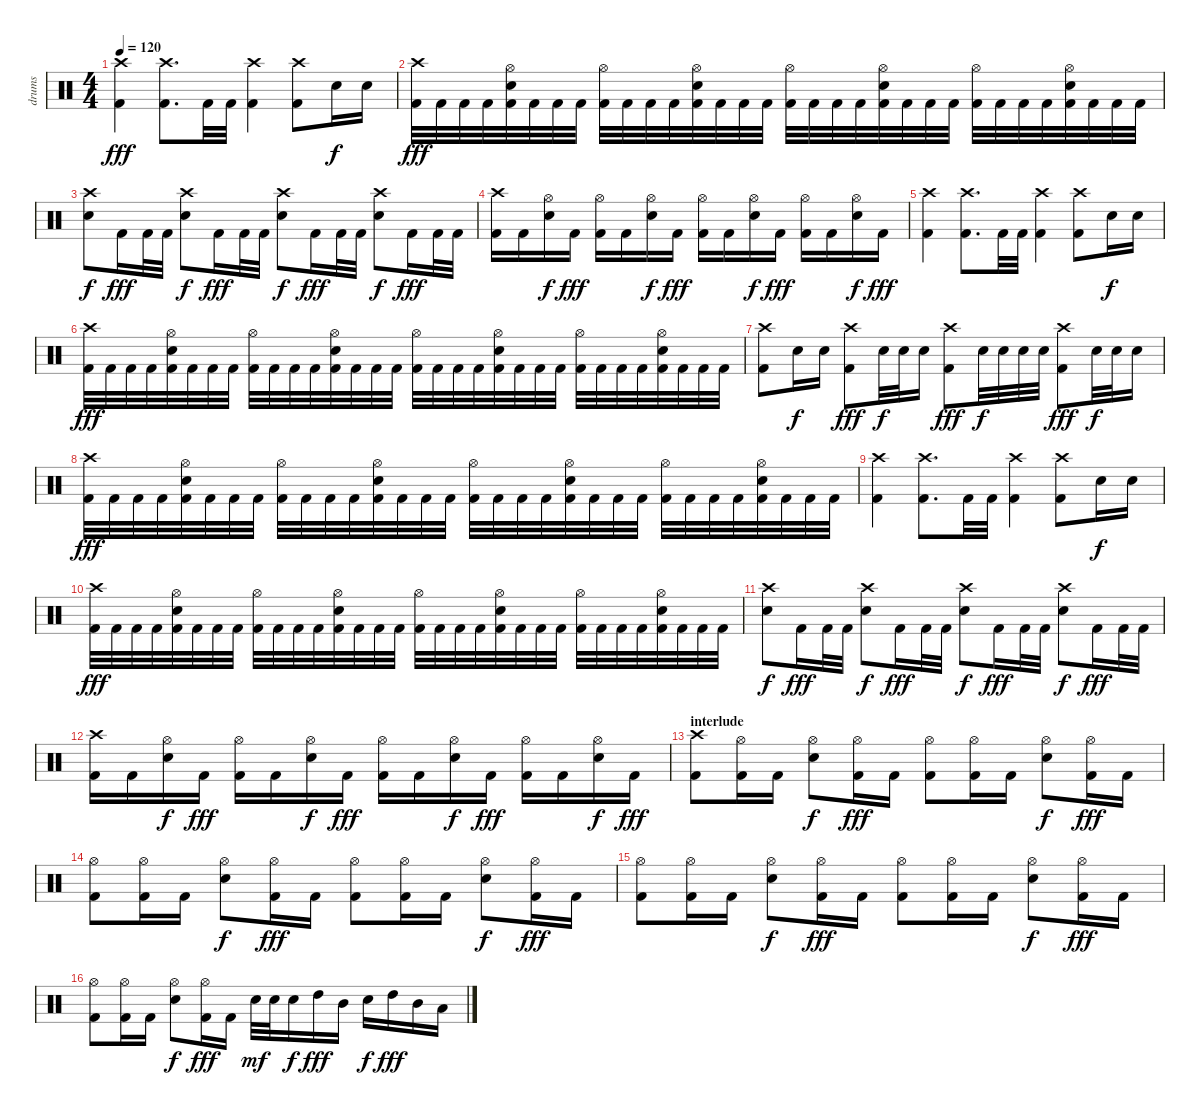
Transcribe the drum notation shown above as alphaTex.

\track ("drums" "drums") {instrument percussion}
\staff {score}
\articulation defaults
\ts (4 4)
\tempo 120
\clef neutral
\ks c
("Crash high (hit)" "Kick (hit) 2").4{dy fff} ("Crash high (hit)" "Kick (hit) 2").8{d} "Kick (hit) 2".32 "Kick (hit) 2".32 ("Crash high (hit)" "Kick (hit) 2").4 ("Crash high (hit)" "Kick (hit) 2").8 "Snare (hit) 2".16{dy f} "Snare (hit) 2".16 |
("Crash high (hit)" "Kick (hit) 2").32{dy fff} "Kick (hit) 2".32 "Kick (hit) 2".32 "Kick (hit) 2".32 ("Hi-Hat (open)" "Snare (hit) 2" "Kick (hit) 2").32 "Kick (hit) 2".32 "Kick (hit) 2".32 "Kick (hit) 2".32 ("Hi-Hat (open)" "Kick (hit) 2").32 "Kick (hit) 2".32 "Kick (hit) 2".32 "Kick (hit) 2".32 ("Hi-Hat (open)" "Snare (hit) 2" "Kick (hit) 2").32 "Kick (hit) 2".32 "Kick (hit) 2".32 "Kick (hit) 2".32 ("Hi-Hat (open)" "Kick (hit) 2").32 "Kick (hit) 2".32 "Kick (hit) 2".32 "Kick (hit) 2".32 ("Hi-Hat (open)" "Snare (hit) 2" "Kick (hit) 2").32 "Kick (hit) 2".32 "Kick (hit) 2".32 "Kick (hit) 2".32 ("Hi-Hat (open)" "Kick (hit) 2").32 "Kick (hit) 2".32 "Kick (hit) 2".32 "Kick (hit) 2".32 ("Hi-Hat (open)" "Snare (hit) 2" "Kick (hit) 2").32 "Kick (hit) 2".32 "Kick (hit) 2".32 "Kick (hit) 2".32 |
("Crash high (hit)" "Snare (hit) 2").8{dy f} "Kick (hit) 2".16{dy fff} "Kick (hit) 2".32 "Kick (hit) 2".32 ("Crash high (hit)" "Snare (hit) 2").8{dy f} "Kick (hit) 2".16{dy fff} "Kick (hit) 2".32 "Kick (hit) 2".32 ("Crash high (hit)" "Snare (hit) 2").8{dy f} "Kick (hit) 2".16{dy fff} "Kick (hit) 2".32 "Kick (hit) 2".32 ("Crash high (hit)" "Snare (hit) 2").8{dy f} "Kick (hit) 2".16{dy fff} "Kick (hit) 2".32 "Kick (hit) 2".32 |
("Crash high (hit)" "Kick (hit) 2").16 "Kick (hit) 2".16 ("Hi-Hat (open)" "Snare (hit) 2").16{dy f} "Kick (hit) 2".16{dy fff} ("Hi-Hat (open)" "Kick (hit) 2").16 "Kick (hit) 2".16 ("Hi-Hat (open)" "Snare (hit) 2").16{dy f} "Kick (hit) 2".16{dy fff} ("Hi-Hat (open)" "Kick (hit) 2").16 "Kick (hit) 2".16 ("Hi-Hat (open)" "Snare (hit) 2").16{dy f} "Kick (hit) 2".16{dy fff} ("Hi-Hat (open)" "Kick (hit) 2").16 "Kick (hit) 2".16 ("Hi-Hat (open)" "Snare (hit) 2").16{dy f} "Kick (hit) 2".16{dy fff} |
("Crash high (hit)" "Kick (hit) 2").4 ("Crash high (hit)" "Kick (hit) 2").8{d} "Kick (hit) 2".32 "Kick (hit) 2".32 ("Crash high (hit)" "Kick (hit) 2").4 ("Crash high (hit)" "Kick (hit) 2").8 "Snare (hit) 2".16{dy f} "Snare (hit) 2".16 |
("Crash high (hit)" "Kick (hit) 2").32{dy fff} "Kick (hit) 2".32 "Kick (hit) 2".32 "Kick (hit) 2".32 ("Hi-Hat (open)" "Snare (hit) 2" "Kick (hit) 2").32 "Kick (hit) 2".32 "Kick (hit) 2".32 "Kick (hit) 2".32 ("Hi-Hat (open)" "Kick (hit) 2").32 "Kick (hit) 2".32 "Kick (hit) 2".32 "Kick (hit) 2".32 ("Hi-Hat (open)" "Snare (hit) 2" "Kick (hit) 2").32 "Kick (hit) 2".32 "Kick (hit) 2".32 "Kick (hit) 2".32 ("Hi-Hat (open)" "Kick (hit) 2").32 "Kick (hit) 2".32 "Kick (hit) 2".32 "Kick (hit) 2".32 ("Hi-Hat (open)" "Snare (hit) 2" "Kick (hit) 2").32 "Kick (hit) 2".32 "Kick (hit) 2".32 "Kick (hit) 2".32 ("Hi-Hat (open)" "Kick (hit) 2").32 "Kick (hit) 2".32 "Kick (hit) 2".32 "Kick (hit) 2".32 ("Hi-Hat (open)" "Snare (hit) 2" "Kick (hit) 2").32 "Kick (hit) 2".32 "Kick (hit) 2".32 "Kick (hit) 2".32 |
("Crash high (hit)" "Kick (hit) 2").8 "Snare (hit) 2".16{dy f} "Snare (hit) 2".16 ("Crash high (hit)" "Kick (hit) 2").8{dy fff} "Snare (hit) 2".32{dy f} "Snare (hit) 2".32 "Snare (hit) 2".16 ("Crash high (hit)" "Kick (hit) 2").8{dy fff} "Snare (hit) 2".32{dy f} "Snare (hit) 2".32 "Snare (hit) 2".32 "Snare (hit) 2".32 ("Crash high (hit)" "Kick (hit) 2").8{dy fff} "Snare (hit) 2".32{dy f} "Snare (hit) 2".32 "Snare (hit) 2".16 |
("Crash high (hit)" "Kick (hit) 2").32{dy fff} "Kick (hit) 2".32 "Kick (hit) 2".32 "Kick (hit) 2".32 ("Hi-Hat (open)" "Snare (hit) 2" "Kick (hit) 2").32 "Kick (hit) 2".32 "Kick (hit) 2".32 "Kick (hit) 2".32 ("Hi-Hat (open)" "Kick (hit) 2").32 "Kick (hit) 2".32 "Kick (hit) 2".32 "Kick (hit) 2".32 ("Hi-Hat (open)" "Snare (hit) 2" "Kick (hit) 2").32 "Kick (hit) 2".32 "Kick (hit) 2".32 "Kick (hit) 2".32 ("Hi-Hat (open)" "Kick (hit) 2").32 "Kick (hit) 2".32 "Kick (hit) 2".32 "Kick (hit) 2".32 ("Hi-Hat (open)" "Snare (hit) 2" "Kick (hit) 2").32 "Kick (hit) 2".32 "Kick (hit) 2".32 "Kick (hit) 2".32 ("Hi-Hat (open)" "Kick (hit) 2").32 "Kick (hit) 2".32 "Kick (hit) 2".32 "Kick (hit) 2".32 ("Hi-Hat (open)" "Snare (hit) 2" "Kick (hit) 2").32 "Kick (hit) 2".32 "Kick (hit) 2".32 "Kick (hit) 2".32 |
("Crash high (hit)" "Kick (hit) 2").4 ("Crash high (hit)" "Kick (hit) 2").8{d} "Kick (hit) 2".32 "Kick (hit) 2".32 ("Crash high (hit)" "Kick (hit) 2").4 ("Crash high (hit)" "Kick (hit) 2").8 "Snare (hit) 2".16{dy f} "Snare (hit) 2".16 |
("Crash high (hit)" "Kick (hit) 2").32{dy fff} "Kick (hit) 2".32 "Kick (hit) 2".32 "Kick (hit) 2".32 ("Hi-Hat (open)" "Snare (hit) 2" "Kick (hit) 2").32 "Kick (hit) 2".32 "Kick (hit) 2".32 "Kick (hit) 2".32 ("Hi-Hat (open)" "Kick (hit) 2").32 "Kick (hit) 2".32 "Kick (hit) 2".32 "Kick (hit) 2".32 ("Hi-Hat (open)" "Snare (hit) 2" "Kick (hit) 2").32 "Kick (hit) 2".32 "Kick (hit) 2".32 "Kick (hit) 2".32 ("Hi-Hat (open)" "Kick (hit) 2").32 "Kick (hit) 2".32 "Kick (hit) 2".32 "Kick (hit) 2".32 ("Hi-Hat (open)" "Snare (hit) 2" "Kick (hit) 2").32 "Kick (hit) 2".32 "Kick (hit) 2".32 "Kick (hit) 2".32 ("Hi-Hat (open)" "Kick (hit) 2").32 "Kick (hit) 2".32 "Kick (hit) 2".32 "Kick (hit) 2".32 ("Hi-Hat (open)" "Snare (hit) 2" "Kick (hit) 2").32 "Kick (hit) 2".32 "Kick (hit) 2".32 "Kick (hit) 2".32 |
("Crash high (hit)" "Snare (hit) 2").8{dy f} "Kick (hit) 2".16{dy fff} "Kick (hit) 2".32 "Kick (hit) 2".32 ("Crash high (hit)" "Snare (hit) 2").8{dy f} "Kick (hit) 2".16{dy fff} "Kick (hit) 2".32 "Kick (hit) 2".32 ("Crash high (hit)" "Snare (hit) 2").8{dy f} "Kick (hit) 2".16{dy fff} "Kick (hit) 2".32 "Kick (hit) 2".32 ("Crash high (hit)" "Snare (hit) 2").8{dy f} "Kick (hit) 2".16{dy fff} "Kick (hit) 2".32 "Kick (hit) 2".32 |
("Crash high (hit)" "Kick (hit) 2").16 "Kick (hit) 2".16 ("Hi-Hat (open)" "Snare (hit) 2").16{dy f} "Kick (hit) 2".16{dy fff} ("Hi-Hat (open)" "Kick (hit) 2").16 "Kick (hit) 2".16 ("Hi-Hat (open)" "Snare (hit) 2").16{dy f} "Kick (hit) 2".16{dy fff} ("Hi-Hat (open)" "Kick (hit) 2").16 "Kick (hit) 2".16 ("Hi-Hat (open)" "Snare (hit) 2").16{dy f} "Kick (hit) 2".16{dy fff} ("Hi-Hat (open)" "Kick (hit) 2").16 "Kick (hit) 2".16 ("Hi-Hat (open)" "Snare (hit) 2").16{dy f} "Kick (hit) 2".16{dy fff} |
\section ("" "interlude")
("Crash high (hit)" "Kick (hit) 2").8 ("Hi-Hat (open)" "Kick (hit) 2").16 "Kick (hit) 2".16 ("Hi-Hat (open)" "Snare (hit) 2").8{dy f} ("Hi-Hat (open)" "Kick (hit) 2").16{dy fff} "Kick (hit) 2".16 ("Hi-Hat (open)" "Kick (hit) 2").8 ("Hi-Hat (open)" "Kick (hit) 2").16 "Kick (hit) 2".16 ("Hi-Hat (open)" "Snare (hit) 2").8{dy f} ("Hi-Hat (open)" "Kick (hit) 2").16{dy fff} "Kick (hit) 2".16 |
("Hi-Hat (open)" "Kick (hit) 2").8 ("Hi-Hat (open)" "Kick (hit) 2").16 "Kick (hit) 2".16 ("Hi-Hat (open)" "Snare (hit) 2").8{dy f} ("Hi-Hat (open)" "Kick (hit) 2").16{dy fff} "Kick (hit) 2".16 ("Hi-Hat (open)" "Kick (hit) 2").8 ("Hi-Hat (open)" "Kick (hit) 2").16 "Kick (hit) 2".16 ("Hi-Hat (open)" "Snare (hit) 2").8{dy f} ("Hi-Hat (open)" "Kick (hit) 2").16{dy fff} "Kick (hit) 2".16 |
("Hi-Hat (open)" "Kick (hit) 2").8 ("Hi-Hat (open)" "Kick (hit) 2").16 "Kick (hit) 2".16 ("Hi-Hat (open)" "Snare (hit) 2").8{dy f} ("Hi-Hat (open)" "Kick (hit) 2").16{dy fff} "Kick (hit) 2".16 ("Hi-Hat (open)" "Kick (hit) 2").8 ("Hi-Hat (open)" "Kick (hit) 2").16 "Kick (hit) 2".16 ("Hi-Hat (open)" "Snare (hit) 2").8{dy f} ("Hi-Hat (open)" "Kick (hit) 2").16{dy fff} "Kick (hit) 2".16 |
("Hi-Hat (open)" "Kick (hit) 2").8 ("Hi-Hat (open)" "Kick (hit) 2").16 "Kick (hit) 2".16 ("Hi-Hat (open)" "Snare (hit) 2").8{dy f} ("Hi-Hat (open)" "Kick (hit) 2").16{dy fff} "Kick (hit) 2".16 "Snare (hit) 2".32{dy mf} "Snare (hit) 2".32 "Snare (hit) 2".16{dy f} "High Tom (hit)".16{dy fff} "Mid Tom (hit)".16 "Snare (hit) 2".16{dy f} "High Tom (hit)".16{dy fff} "Mid Tom (hit)".16 "Low Tom (hit)".16
